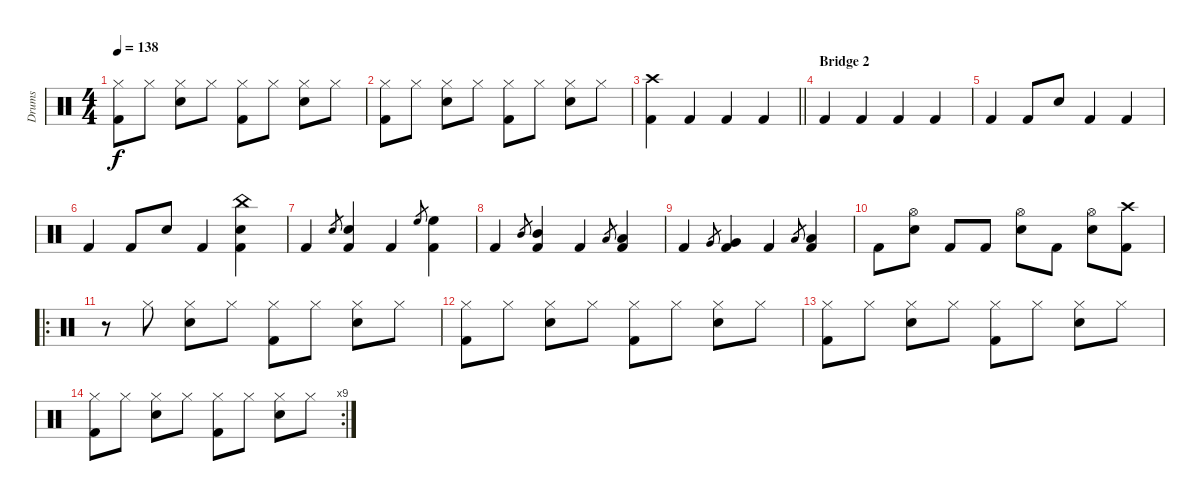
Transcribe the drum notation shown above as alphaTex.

\track ("Drums" "Drums") {instrument percussion}
\staff {score}
\articulation defaults
\ts (4 4)
\tempo 138
\clef neutral
\ks c
("Hi-Hat (closed)" "Kick (hit) 2").8{dy f} "Hi-Hat (closed)".8 ("Hi-Hat (closed)" "Snare (hit) 2").8 "Hi-Hat (closed)".8 ("Hi-Hat (closed)" "Kick (hit) 2").8 "Hi-Hat (closed)".8 ("Hi-Hat (closed)" "Snare (hit) 2").8 "Hi-Hat (closed)".8 |
("Hi-Hat (closed)" "Kick (hit) 2").8 "Hi-Hat (closed)".8 ("Hi-Hat (closed)" "Snare (hit) 2").8 "Hi-Hat (closed)".8 ("Hi-Hat (closed)" "Kick (hit) 2").8 "Hi-Hat (closed)".8 ("Hi-Hat (closed)" "Snare (hit) 2").8 "Hi-Hat (closed)".8 |
\barLineRight lightlight
("Crash high (hit)" "Kick (hit) 2").4 "Kick (hit) 2".4 "Kick (hit) 2".4 "Kick (hit) 2".4 |
\section ("" "Bridge 2")
"Kick (hit) 2".4 "Kick (hit) 2".4 "Kick (hit) 2".4 "Kick (hit) 2".4 |
"Kick (hit) 2".4 "Kick (hit) 2".8 "Snare (hit) 2".8 "Kick (hit) 2".4 "Kick (hit) 2".4 |
"Kick (hit) 2".4 "Kick (hit) 2".8 "Snare (hit) 2".8 "Kick (hit) 2".4 ("China (hit)" "Snare (hit) 2" "Kick (hit) 2").4 |
"Kick (hit) 2".4 "Snare (hit) 2".8{gr} ("Snare (hit) 2" "Kick (hit) 2").4 "Kick (hit) 2".4 "High Floor Tom (hit)".8{gr} ("High Floor Tom (hit)" "Kick (hit) 2").4 |
"Kick (hit) 2".4 "Mid Tom (hit)".8{gr} ("Mid Tom (hit)" "Kick (hit) 2").4 "Kick (hit) 2".4 "Low Tom (hit)".8{gr} ("Low Tom (hit)" "Kick (hit) 2").4 |
"Kick (hit) 2".4 "Very Low Tom (hit)".8{gr} ("Very Low Tom (hit)" "Kick (hit) 2").4 "Kick (hit) 2".4 "Low Floor Tom (hit)".8{gr} ("Low Floor Tom (hit)" "Kick (hit) 2").4 |
"Kick (hit) 2".8 ("Hi-Hat (open)" "Snare (hit) 2").8 "Kick (hit) 2".8 "Kick (hit) 2".8 ("Hi-Hat (open)" "Snare (hit) 2").8 "Kick (hit) 2".8 ("Hi-Hat (open)" "Snare (hit) 2").8 ("Crash high (hit)" "Kick (hit) 2").8 |
\ro
r.8 "Hi-Hat (closed)".8 ("Hi-Hat (closed)" "Snare (hit) 2").8 "Hi-Hat (closed)".8 ("Hi-Hat (closed)" "Kick (hit) 2").8 "Hi-Hat (closed)".8 ("Hi-Hat (closed)" "Snare (hit) 2").8 "Hi-Hat (closed)".8 |
("Hi-Hat (closed)" "Kick (hit) 2").8 "Hi-Hat (closed)".8 ("Hi-Hat (closed)" "Snare (hit) 2").8 "Hi-Hat (closed)".8 ("Hi-Hat (closed)" "Kick (hit) 2").8 "Hi-Hat (closed)".8 ("Hi-Hat (closed)" "Snare (hit) 2").8 "Hi-Hat (closed)".8 |
("Hi-Hat (closed)" "Kick (hit) 2").8 "Hi-Hat (closed)".8 ("Hi-Hat (closed)" "Snare (hit) 2").8 "Hi-Hat (closed)".8 ("Hi-Hat (closed)" "Kick (hit) 2").8 "Hi-Hat (closed)".8 ("Hi-Hat (closed)" "Snare (hit) 2").8 "Hi-Hat (closed)".8 |
\rc 9
("Hi-Hat (closed)" "Kick (hit) 2").8 "Hi-Hat (closed)".8 ("Hi-Hat (closed)" "Snare (hit) 2").8 "Hi-Hat (closed)".8 ("Hi-Hat (closed)" "Kick (hit) 2").8 "Hi-Hat (closed)".8 ("Hi-Hat (closed)" "Snare (hit) 2").8 "Hi-Hat (closed)".8
